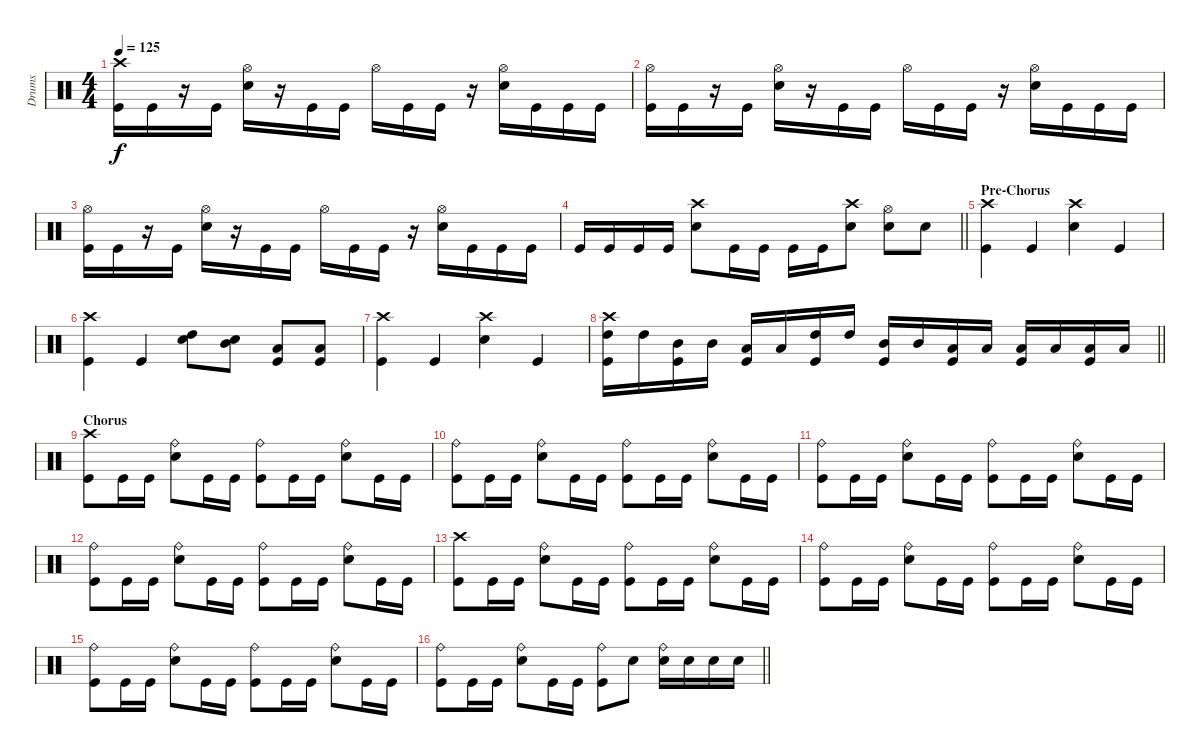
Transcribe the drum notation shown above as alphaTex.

\track ("Drums " "Drums ") {instrument percussion}
\staff {score}
\articulation defaults
\ts (4 4)
\tempo 125
\clef neutral
\ks c
("Crash high (hit)" "Kick (hit)").16{dy f} "Kick (hit)".16 r.16 "Kick (hit)".16 ("Hi-Hat (open)" "Electric Snare (hit)").16 r.16 "Kick (hit)".16 "Kick (hit)".16 "Hi-Hat (open)".16 "Kick (hit)".16 "Kick (hit)".16 r.16 ("Hi-Hat (open)" "Electric Snare (hit)").16 "Kick (hit)".16 "Kick (hit)".16 "Kick (hit)".16 |
("Hi-Hat (open)" "Kick (hit)").16 "Kick (hit)".16 r.16 "Kick (hit)".16 ("Hi-Hat (open)" "Electric Snare (hit)").16 r.16 "Kick (hit)".16 "Kick (hit)".16 "Hi-Hat (open)".16 "Kick (hit)".16 "Kick (hit)".16 r.16 ("Hi-Hat (open)" "Electric Snare (hit)").16 "Kick (hit)".16 "Kick (hit)".16 "Kick (hit)".16 |
("Hi-Hat (open)" "Kick (hit)").16 "Kick (hit)".16 r.16 "Kick (hit)".16 ("Hi-Hat (open)" "Electric Snare (hit)").16 r.16 "Kick (hit)".16 "Kick (hit)".16 "Hi-Hat (open)".16 "Kick (hit)".16 "Kick (hit)".16 r.16 ("Hi-Hat (open)" "Electric Snare (hit)").16 "Kick (hit)".16 "Kick (hit)".16 "Kick (hit)".16 |
\barLineRight lightlight "Kick (hit)".16 "Kick (hit)".16 "Kick (hit)".16 "Kick (hit)".16
("Crash high (hit)" "Electric Snare (hit)").8 "Kick (hit)".16 "Kick (hit)".16 "Kick (hit)".16 "Kick (hit)".16 ("Crash high (hit)" "Electric Snare (hit)").8 ("Hi-Hat (open)" "Electric Snare (hit)").8 "Electric Snare (hit)".8 |
\section ("" "Pre-Chorus ")
("Crash high (hit)" "Kick (hit)").4 "Kick (hit)".4 ("Crash high (hit)" "Electric Snare (hit)").4 "Kick (hit)".4 |
("Crash high (hit)" "Kick (hit)").4 "Kick (hit)".4 ("High Tom (hit)" "Electric Snare (hit)").8 ("Mid Tom (hit)" "Electric Snare (hit)").8 ("Low Tom (hit)" "Kick (hit)").8 ("Low Floor Tom (hit)" "Kick (hit)").8 |
("Crash high (hit)" "Kick (hit)").4 "Kick (hit)".4 ("Crash high (hit)" "Electric Snare (hit)").4 "Kick (hit)".4 |
\barLineRight lightlight
("Crash high (hit)" "High Tom (hit)" "Kick (hit)").16 "High Tom (hit)".16 ("Mid Tom (hit)" "Kick (hit)").16 "Mid Tom (hit)".16 ("Low Tom (hit)" "Kick (hit)").16 "Low Tom (hit)".16 ("High Tom (hit)" "Kick (hit)").16 "High Tom (hit)".16 ("Mid Tom (hit)" "Kick (hit)").16 "Mid Tom (hit)".16 ("Low Tom (hit)" "Kick (hit)").16 "Low Tom (hit)".16 ("Low Floor Tom (hit)" "Kick (hit)").16 "Low Floor Tom (hit)".16 ("Low Floor Tom (hit)" "Kick (hit)").16 "Low Floor Tom (hit)".16 |
\section ("" "Chorus ")
("Crash high (hit)" "Kick (hit)").8 "Kick (hit)".16 "Kick (hit)".16 ("Ride (bell)" "Electric Snare (hit)").8 "Kick (hit)".16 "Kick (hit)".16 ("Ride (bell)" "Kick (hit)").8 "Kick (hit)".16 "Kick (hit)".16 ("Ride (bell)" "Electric Snare (hit)").8 "Kick (hit)".16 "Kick (hit)".16 |
("Ride (bell)" "Kick (hit)").8 "Kick (hit)".16 "Kick (hit)".16 ("Ride (bell)" "Electric Snare (hit)").8 "Kick (hit)".16 "Kick (hit)".16 ("Ride (bell)" "Kick (hit)").8 "Kick (hit)".16 "Kick (hit)".16 ("Ride (bell)" "Electric Snare (hit)").8 "Kick (hit)".16 "Kick (hit)".16 |
("Ride (bell)" "Kick (hit)").8 "Kick (hit)".16 "Kick (hit)".16 ("Ride (bell)" "Electric Snare (hit)").8 "Kick (hit)".16 "Kick (hit)".16 ("Ride (bell)" "Kick (hit)").8 "Kick (hit)".16 "Kick (hit)".16 ("Ride (bell)" "Electric Snare (hit)").8 "Kick (hit)".16 "Kick (hit)".16 |
("Ride (bell)" "Kick (hit)").8 "Kick (hit)".16 "Kick (hit)".16 ("Ride (bell)" "Electric Snare (hit)").8 "Kick (hit)".16 "Kick (hit)".16 ("Ride (bell)" "Kick (hit)").8 "Kick (hit)".16 "Kick (hit)".16 ("Ride (bell)" "Electric Snare (hit)").8 "Kick (hit)".16 "Kick (hit)".16 |
("Crash high (hit)" "Kick (hit)").8 "Kick (hit)".16 "Kick (hit)".16 ("Ride (bell)" "Electric Snare (hit)").8 "Kick (hit)".16 "Kick (hit)".16 ("Ride (bell)" "Kick (hit)").8 "Kick (hit)".16 "Kick (hit)".16 ("Ride (bell)" "Electric Snare (hit)").8 "Kick (hit)".16 "Kick (hit)".16 |
("Ride (bell)" "Kick (hit)").8 "Kick (hit)".16 "Kick (hit)".16 ("Ride (bell)" "Electric Snare (hit)").8 "Kick (hit)".16 "Kick (hit)".16 ("Ride (bell)" "Kick (hit)").8 "Kick (hit)".16 "Kick (hit)".16 ("Ride (bell)" "Electric Snare (hit)").8 "Kick (hit)".16 "Kick (hit)".16 |
("Ride (bell)" "Kick (hit)").8 "Kick (hit)".16 "Kick (hit)".16 ("Ride (bell)" "Electric Snare (hit)").8 "Kick (hit)".16 "Kick (hit)".16 ("Ride (bell)" "Kick (hit)").8 "Kick (hit)".16 "Kick (hit)".16 ("Ride (bell)" "Electric Snare (hit)").8 "Kick (hit)".16 "Kick (hit)".16 |
\barLineRight lightlight
("Ride (bell)" "Kick (hit)").8 "Kick (hit)".16 "Kick (hit)".16 ("Ride (bell)" "Electric Snare (hit)").8 "Kick (hit)".16 "Kick (hit)".16 ("Ride (bell)" "Kick (hit)").8 "Electric Snare (hit)".8 ("Ride (bell)" "Electric Snare (hit)").16 "Electric Snare (hit)".16 "Electric Snare (hit)".16 "Electric Snare (hit)".16
